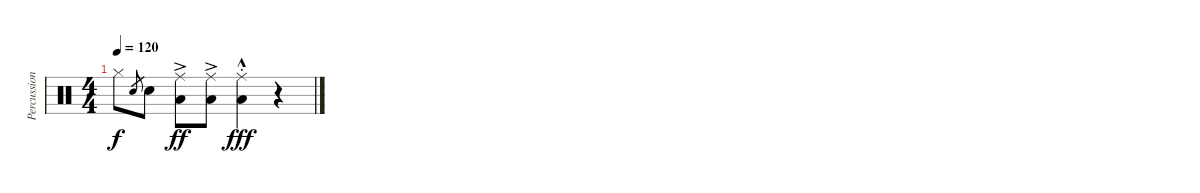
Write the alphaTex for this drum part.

\track ("Percussion" "Percussion") {instrument percussion}
\staff {score}
\articulation defaults
\ts (4 4)
\tempo 120
\clef neutral
\ks c "Hi-Hat (closed)".8{dy f} "Snare (hit) 2".8{gr} "Snare (hit) 2".8
("Ride (middle)"{ac} "Low Floor Tom (hit)").8{dy ff} ("Ride (middle)"{ac} "Low Floor Tom (hit)").8 ("Ride (middle)"{hac st} "Low Floor Tom (hit)").4{dy fff} r.4
